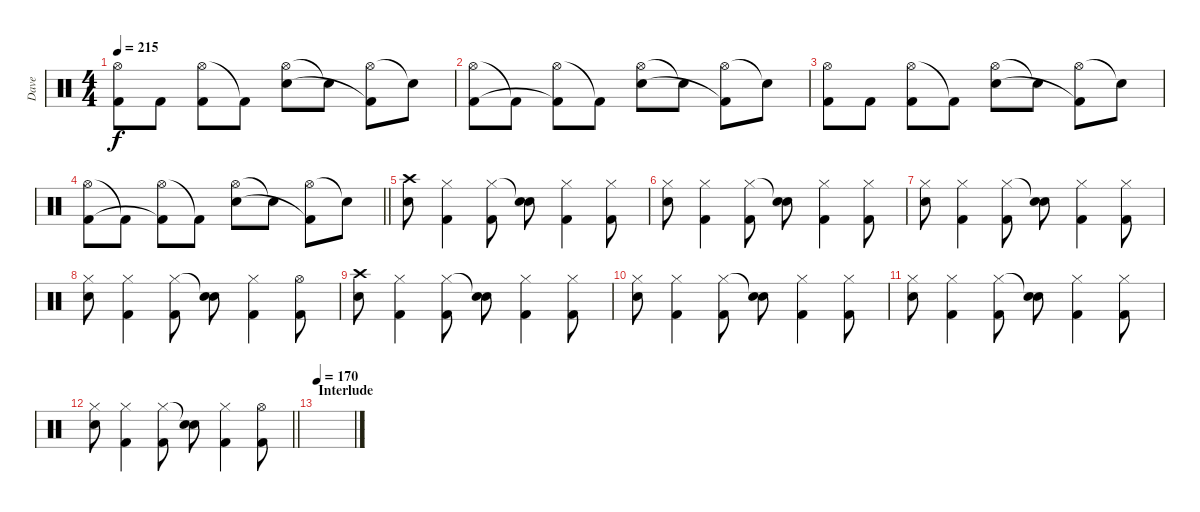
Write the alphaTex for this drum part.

\track ("Dave" "Dave") {instrument percussion}
\staff {score}
\articulation defaults
\ts (4 4)
\tempo 215
\clef neutral
\ks c
("Hi-Hat (open)" "Kick (hit) 2").8{dy f} "Kick (hit) 2".8 ("Hi-Hat (open)" "Kick (hit) 2").8 "Kick (hit) 2"{t}.8 ("Hi-Hat (open)" "Electric Snare (hit)").8 "Snare (hit)"{t}.8 ("Hi-Hat (open)" "Kick (hit) 2"{t}).8 "Snare (hit)"{t}.8 |
("Hi-Hat (open)" "Kick (hit) 2").8 "Kick (hit) 2"{t}.8 ("Hi-Hat (open)" "Kick (hit) 2"{t}).8 "Kick (hit) 2"{t}.8 ("Hi-Hat (open)" "Electric Snare (hit)").8 "Snare (hit)"{t}.8 ("Hi-Hat (open)" "Kick (hit) 2"{t}).8 "Snare (hit)"{t}.8 |
("Hi-Hat (open)" "Kick (hit) 2").8 "Kick (hit) 2".8 ("Hi-Hat (open)" "Kick (hit) 2").8 "Kick (hit) 2"{t}.8 ("Hi-Hat (open)" "Electric Snare (hit)").8 "Snare (hit)"{t}.8 ("Hi-Hat (open)" "Kick (hit) 2"{t}).8 "Snare (hit)"{t}.8 |
\barLineRight lightlight
("Hi-Hat (open)" "Kick (hit) 2").8 "Kick (hit) 2"{t}.8 ("Hi-Hat (open)" "Kick (hit) 2"{t}).8 "Kick (hit) 2"{t}.8 ("Hi-Hat (open)" "Electric Snare (hit)").8 "Snare (hit)"{t}.8 ("Hi-Hat (open)" "Kick (hit) 2"{t}).8 "Snare (hit)"{t}.8 |
("Crash high (hit)" "Electric Snare (hit)").8 ("Hi-Hat (closed)" "Kick (hit) 2").4 ("Hi-Hat (closed)" "Kick (hit) 2").8 ("Snare (hit)"{t} "Electric Snare (hit)").8 ("Hi-Hat (closed)" "Kick (hit) 2").4 ("Hi-Hat (closed)" "Kick (hit) 2").8 |
("Hi-Hat (closed)" "Electric Snare (hit)").8 ("Hi-Hat (closed)" "Kick (hit) 2").4 ("Hi-Hat (closed)" "Kick (hit) 2").8 ("Snare (hit)"{t} "Electric Snare (hit)").8 ("Hi-Hat (closed)" "Kick (hit) 2").4 ("Hi-Hat (closed)" "Kick (hit) 2").8 |
("Hi-Hat (closed)" "Electric Snare (hit)").8 ("Hi-Hat (closed)" "Kick (hit) 2").4 ("Hi-Hat (closed)" "Kick (hit) 2").8 ("Snare (hit)"{t} "Electric Snare (hit)").8 ("Hi-Hat (closed)" "Kick (hit) 2").4 ("Hi-Hat (closed)" "Kick (hit) 2").8 |
("Hi-Hat (closed)" "Electric Snare (hit)").8 ("Hi-Hat (closed)" "Kick (hit) 2").4 ("Hi-Hat (closed)" "Kick (hit) 2").8 ("Snare (hit)"{t} "Electric Snare (hit)").8 ("Hi-Hat (closed)" "Kick (hit) 2").4 ("Hi-Hat (open)" "Kick (hit) 2").8 |
("Crash high (hit)" "Electric Snare (hit)").8 ("Hi-Hat (closed)" "Kick (hit) 2").4 ("Hi-Hat (closed)" "Kick (hit) 2").8 ("Snare (hit)"{t} "Electric Snare (hit)").8 ("Hi-Hat (closed)" "Kick (hit) 2").4 ("Hi-Hat (closed)" "Kick (hit) 2").8 |
("Hi-Hat (closed)" "Electric Snare (hit)").8 ("Hi-Hat (closed)" "Kick (hit) 2").4 ("Hi-Hat (closed)" "Kick (hit) 2").8 ("Snare (hit)"{t} "Electric Snare (hit)").8 ("Hi-Hat (closed)" "Kick (hit) 2").4 ("Hi-Hat (closed)" "Kick (hit) 2").8 |
("Hi-Hat (closed)" "Electric Snare (hit)").8 ("Hi-Hat (closed)" "Kick (hit) 2").4 ("Hi-Hat (closed)" "Kick (hit) 2").8 ("Snare (hit)"{t} "Electric Snare (hit)").8 ("Hi-Hat (closed)" "Kick (hit) 2").4 ("Hi-Hat (closed)" "Kick (hit) 2").8 |
\barLineRight lightlight
("Hi-Hat (closed)" "Electric Snare (hit)").8 ("Hi-Hat (closed)" "Kick (hit) 2").4 ("Hi-Hat (closed)" "Kick (hit) 2").8 ("Snare (hit)"{t} "Electric Snare (hit)").8 ("Hi-Hat (closed)" "Kick (hit) 2").4 ("Hi-Hat (open)" "Kick (hit) 2").8 |
\section ("" "Interlude")
\tempo 170
